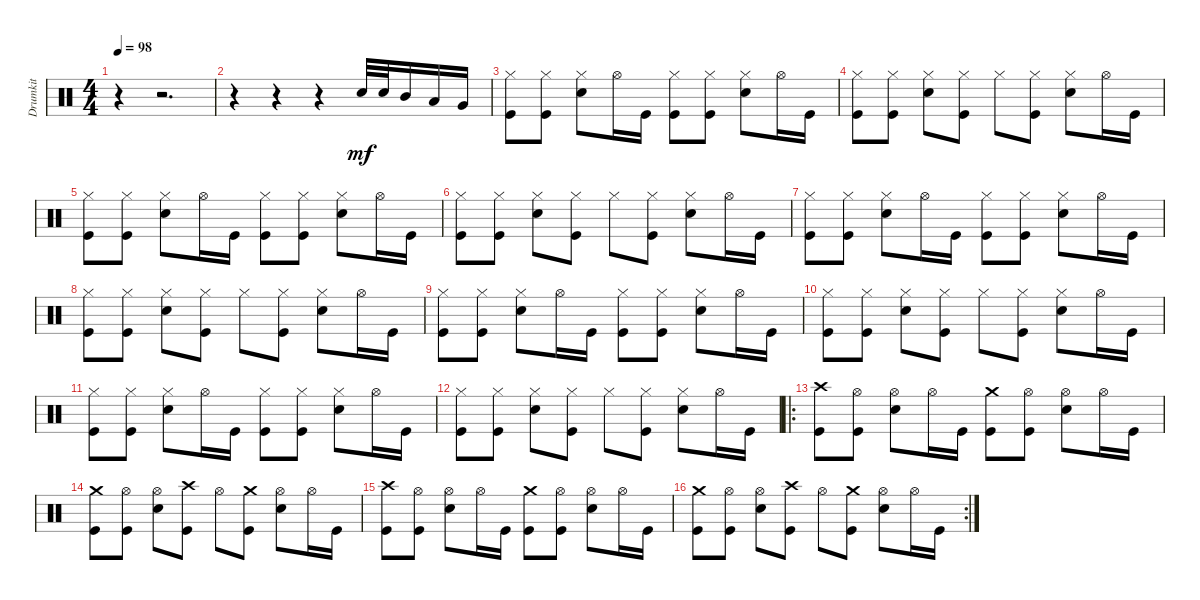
\track ("Drumkit" "Drumkit") {instrument percussion}
\staff {score}
\articulation defaults
\ts (4 4)
\tempo 98
\clef neutral
\ks c
r.4{dy mf} r.2{d} |
r.4 r.4 r.4 "Snare (hit) 2".32 "Snare (hit) 2".32 "Mid Tom (hit)".16 "Low Tom (hit)".16 "Very Low Tom (hit)".16 |
("Kick (hit)" "Hi-Hat (closed)").8 ("Kick (hit)" "Hi-Hat (closed)").8 ("Hi-Hat (closed)" "Snare (hit) 2").8 "Hi-Hat (open)".16 "Kick (hit)".16 ("Kick (hit)" "Hi-Hat (closed)").8 ("Kick (hit)" "Hi-Hat (closed)").8 ("Hi-Hat (closed)" "Snare (hit) 2").8 "Hi-Hat (open)".16 "Kick (hit)".16 |
("Kick (hit)" "Hi-Hat (closed)").8 ("Kick (hit)" "Hi-Hat (closed)").8 ("Hi-Hat (closed)" "Snare (hit) 2").8 ("Kick (hit)" "Hi-Hat (closed)").8 "Hi-Hat (closed)".8 ("Kick (hit)" "Hi-Hat (closed)").8 ("Snare (hit) 2" "Hi-Hat (closed)").8 "Hi-Hat (open)".16 "Kick (hit)".16 |
("Kick (hit)" "Hi-Hat (closed)").8 ("Kick (hit)" "Hi-Hat (closed)").8 ("Hi-Hat (closed)" "Snare (hit) 2").8 "Hi-Hat (open)".16 "Kick (hit)".16 ("Kick (hit)" "Hi-Hat (closed)").8 ("Kick (hit)" "Hi-Hat (closed)").8 ("Hi-Hat (closed)" "Snare (hit) 2").8 "Hi-Hat (open)".16 "Kick (hit)".16 |
("Kick (hit)" "Hi-Hat (closed)").8 ("Kick (hit)" "Hi-Hat (closed)").8 ("Hi-Hat (closed)" "Snare (hit) 2").8 ("Kick (hit)" "Hi-Hat (closed)").8 "Hi-Hat (closed)".8 ("Kick (hit)" "Hi-Hat (closed)").8 ("Snare (hit) 2" "Hi-Hat (closed)").8 "Hi-Hat (open)".16 "Kick (hit)".16 |
("Kick (hit)" "Hi-Hat (closed)").8 ("Kick (hit)" "Hi-Hat (closed)").8 ("Hi-Hat (closed)" "Snare (hit) 2").8 "Hi-Hat (open)".16 "Kick (hit)".16 ("Kick (hit)" "Hi-Hat (closed)").8 ("Kick (hit)" "Hi-Hat (closed)").8 ("Hi-Hat (closed)" "Snare (hit) 2").8 "Hi-Hat (open)".16 "Kick (hit)".16 |
("Kick (hit)" "Hi-Hat (closed)").8 ("Kick (hit)" "Hi-Hat (closed)").8 ("Hi-Hat (closed)" "Snare (hit) 2").8 ("Kick (hit)" "Hi-Hat (closed)").8 "Hi-Hat (closed)".8 ("Kick (hit)" "Hi-Hat (closed)").8 ("Snare (hit) 2" "Hi-Hat (closed)").8 "Hi-Hat (open)".16 "Kick (hit)".16 |
("Kick (hit)" "Hi-Hat (closed)").8 ("Kick (hit)" "Hi-Hat (closed)").8 ("Hi-Hat (closed)" "Snare (hit) 2").8 "Hi-Hat (open)".16 "Kick (hit)".16 ("Kick (hit)" "Hi-Hat (closed)").8 ("Kick (hit)" "Hi-Hat (closed)").8 ("Hi-Hat (closed)" "Snare (hit) 2").8 "Hi-Hat (open)".16 "Kick (hit)".16 |
("Kick (hit)" "Hi-Hat (closed)").8 ("Kick (hit)" "Hi-Hat (closed)").8 ("Hi-Hat (closed)" "Snare (hit) 2").8 ("Kick (hit)" "Hi-Hat (closed)").8 "Hi-Hat (closed)".8 ("Kick (hit)" "Hi-Hat (closed)").8 ("Snare (hit) 2" "Hi-Hat (closed)").8 "Hi-Hat (open)".16 "Kick (hit)".16 |
("Kick (hit)" "Hi-Hat (closed)").8 ("Kick (hit)" "Hi-Hat (closed)").8 ("Hi-Hat (closed)" "Snare (hit) 2").8 "Hi-Hat (open)".16 "Kick (hit)".16 ("Kick (hit)" "Hi-Hat (closed)").8 ("Kick (hit)" "Hi-Hat (closed)").8 ("Hi-Hat (closed)" "Snare (hit) 2").8 "Hi-Hat (open)".16 "Kick (hit)".16 |
("Kick (hit)" "Hi-Hat (closed)").8 ("Kick (hit)" "Hi-Hat (closed)").8 ("Hi-Hat (closed)" "Snare (hit) 2").8 ("Kick (hit)" "Hi-Hat (closed)").8 "Hi-Hat (closed)".8 ("Kick (hit)" "Hi-Hat (closed)").8 ("Snare (hit) 2" "Hi-Hat (closed)").8 "Hi-Hat (open)".16 "Kick (hit)".16 |
\ro
("Kick (hit)" "Crash high (hit)").8 ("Kick (hit)" "Hi-Hat (open)").8 ("Snare (hit) 2" "Hi-Hat (open)").8 "Hi-Hat (open)".16 "Kick (hit)".16 ("Kick (hit)" "Crash medium (hit)").8 ("Kick (hit)" "Hi-Hat (open)").8 ("Snare (hit) 2" "Hi-Hat (open)").8 "Hi-Hat (open)".16 "Kick (hit)".16 |
("Kick (hit)" "Crash medium (hit)").8 ("Kick (hit)" "Hi-Hat (open)").8 ("Hi-Hat (open)" "Snare (hit) 2").8 ("Kick (hit)" "Crash high (hit)").8 "Hi-Hat (open)".8 ("Kick (hit)" "Crash medium (hit)").8 ("Snare (hit) 2" "Hi-Hat (open)").8 "Hi-Hat (open)".16 "Kick (hit)".16 |
("Kick (hit)" "Crash high (hit)").8 ("Kick (hit)" "Hi-Hat (open)").8 ("Snare (hit) 2" "Hi-Hat (open)").8 "Hi-Hat (open)".16 "Kick (hit)".16 ("Kick (hit)" "Crash medium (hit)").8 ("Kick (hit)" "Hi-Hat (open)").8 ("Snare (hit) 2" "Hi-Hat (open)").8 "Hi-Hat (open)".16 "Kick (hit)".16 |
\rc 2
("Kick (hit)" "Crash medium (hit)").8 ("Kick (hit)" "Hi-Hat (open)").8 ("Hi-Hat (open)" "Snare (hit) 2").8 ("Kick (hit)" "Crash high (hit)").8 "Hi-Hat (open)".8 ("Kick (hit)" "Crash medium (hit)").8 ("Snare (hit) 2" "Hi-Hat (open)").8 "Hi-Hat (open)".16 "Kick (hit)".16
